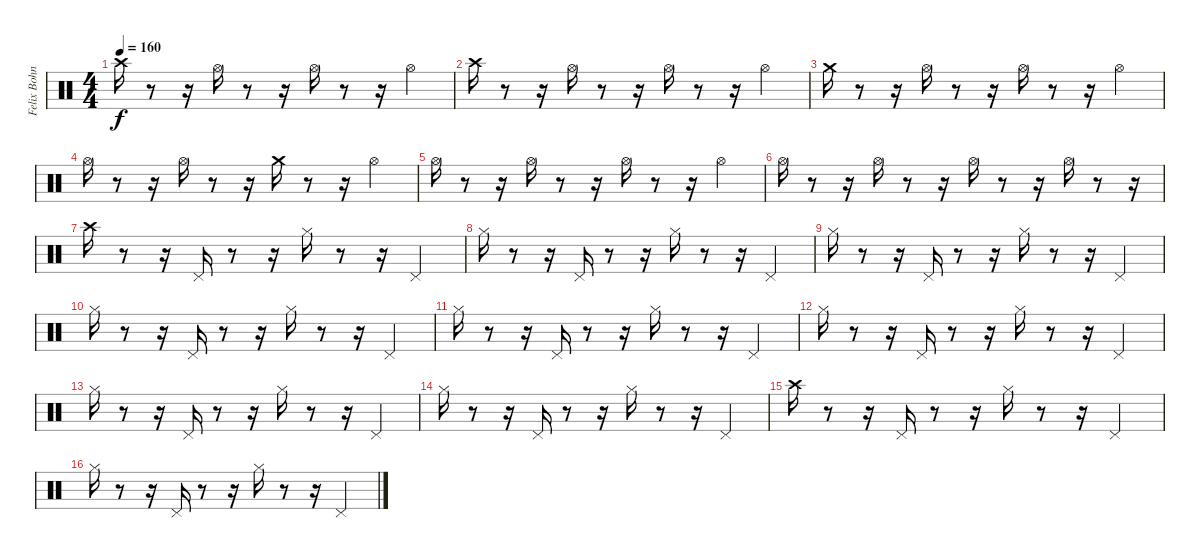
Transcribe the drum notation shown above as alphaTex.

\track ("Felix Bohnke" "Felix Bohn") {instrument percussion}
\staff {score}
\articulation defaults
\ts (4 4)
\tempo 160
\clef neutral
\ks c "Crash high (hit)".16{dy f}
r.8 r.16 "Hi-Hat (open)".16 r.8 r.16 "Hi-Hat (open)".16 r.8 r.16 "Hi-Hat (open)".4 |
"Crash high (hit)".16 r.8 r.16 "Hi-Hat (open)".16 r.8 r.16 "Hi-Hat (open)".16 r.8 r.16 "Hi-Hat (open)".4 |
"Crash medium (hit)".16 r.8 r.16 "Hi-Hat (open)".16 r.8 r.16 "Hi-Hat (open)".16 r.8 r.16 "Hi-Hat (open)".4 |
"Hi-Hat (open)".16 r.8 r.16 "Hi-Hat (open)".16 r.8 r.16 "Crash medium (hit)".16 r.8 r.16 "Hi-Hat (open)".4 |
"Hi-Hat (open)".16 r.8 r.16 "Hi-Hat (open)".16 r.8 r.16 "Hi-Hat (open)".16 r.8 r.16 "Hi-Hat (open)".4 |
"Hi-Hat (open)".16 r.8 r.16 "Hi-Hat (open)".16 r.8 r.16 "Hi-Hat (open)".16 r.8 r.16 "Hi-Hat (open)".16 r.8 r.16 |
"Crash high (hit)".16 r.8 r.16 "Pedal Hi-Hat (hit)".16 r.8 r.16 "Hi-Hat (closed)".16 r.8 r.16 "Pedal Hi-Hat (hit)".4 |
"Hi-Hat (closed)".16 r.8 r.16 "Pedal Hi-Hat (hit)".16 r.8 r.16 "Hi-Hat (closed)".16 r.8 r.16 "Pedal Hi-Hat (hit)".4 |
"Hi-Hat (closed)".16 r.8 r.16 "Pedal Hi-Hat (hit)".16 r.8 r.16 "Hi-Hat (closed)".16 r.8 r.16 "Pedal Hi-Hat (hit)".4 |
"Hi-Hat (closed)".16 r.8 r.16 "Pedal Hi-Hat (hit)".16 r.8 r.16 "Hi-Hat (closed)".16 r.8 r.16 "Pedal Hi-Hat (hit)".4 |
"Hi-Hat (closed)".16 r.8 r.16 "Pedal Hi-Hat (hit)".16 r.8 r.16 "Hi-Hat (closed)".16 r.8 r.16 "Pedal Hi-Hat (hit)".4 |
"Hi-Hat (closed)".16 r.8 r.16 "Pedal Hi-Hat (hit)".16 r.8 r.16 "Hi-Hat (closed)".16 r.8 r.16 "Pedal Hi-Hat (hit)".4 |
"Hi-Hat (closed)".16 r.8 r.16 "Pedal Hi-Hat (hit)".16 r.8 r.16 "Hi-Hat (closed)".16 r.8 r.16 "Pedal Hi-Hat (hit)".4 |
"Hi-Hat (closed)".16 r.8 r.16 "Pedal Hi-Hat (hit)".16 r.8 r.16 "Hi-Hat (closed)".16 r.8 r.16 "Pedal Hi-Hat (hit)".4 |
"Crash high (hit)".16 r.8 r.16 "Pedal Hi-Hat (hit)".16 r.8 r.16 "Hi-Hat (closed)".16 r.8 r.16 "Pedal Hi-Hat (hit)".4 |
"Hi-Hat (closed)".16 r.8 r.16 "Pedal Hi-Hat (hit)".16 r.8 r.16 "Hi-Hat (closed)".16 r.8 r.16 "Pedal Hi-Hat (hit)".4
